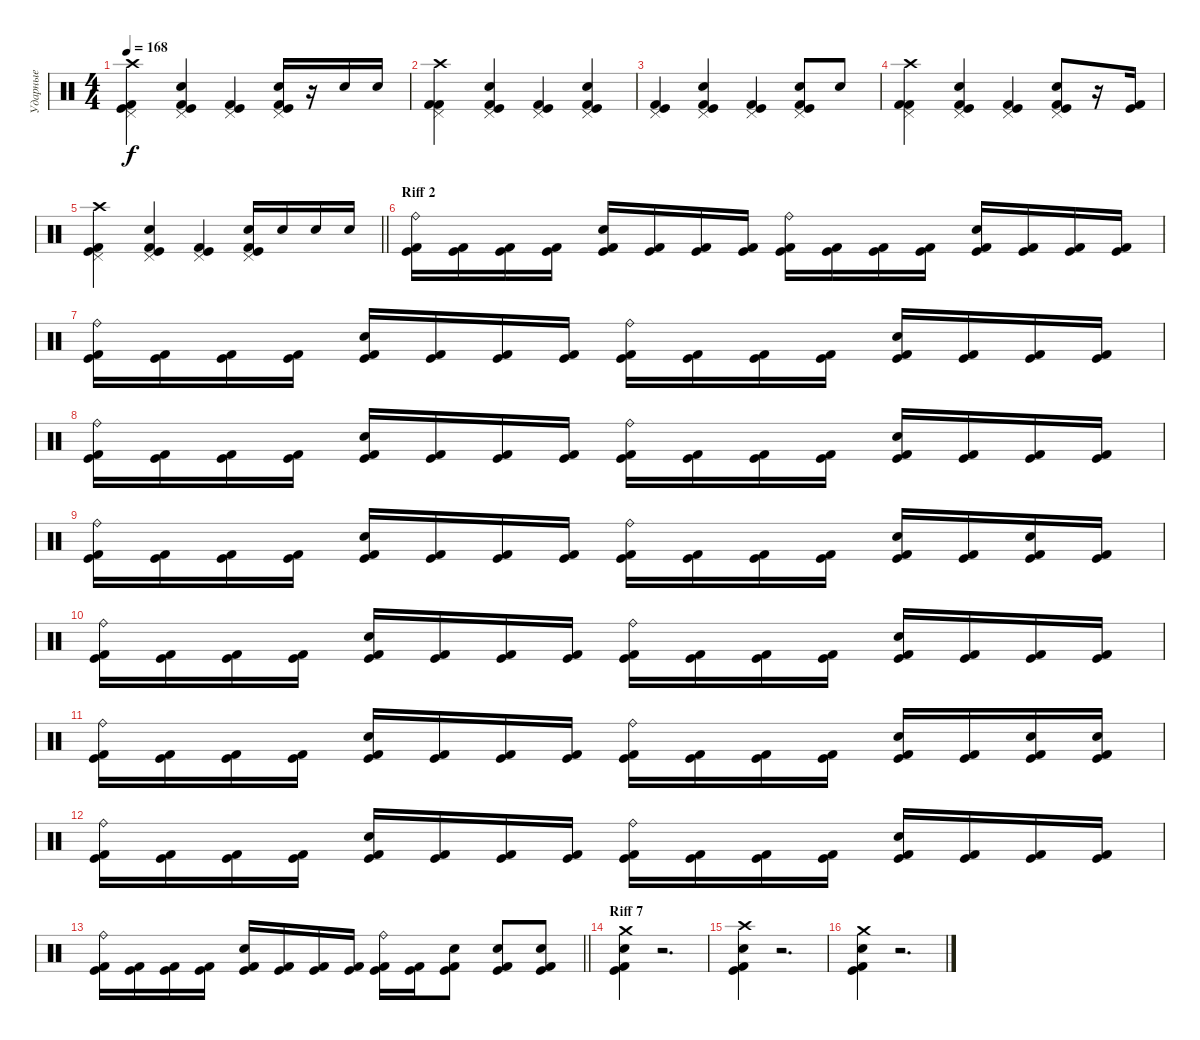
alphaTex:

\track ("Ударные" "Ударные") {instrument percussion}
\staff {score}
\articulation defaults
\ts (4 4)
\tempo 168
\clef neutral
\ks c
("Crash high (hit)" "Pedal Hi-Hat (hit)" "Kick (hit)" "Kick (hit) 2").4{dy f} ("Pedal Hi-Hat (hit)" "Electric Snare (hit)" "Kick (hit)" "Kick (hit) 2").4 ("Pedal Hi-Hat (hit)" "Kick (hit)" "Kick (hit) 2").4 ("Pedal Hi-Hat (hit)" "Electric Snare (hit)" "Kick (hit)" "Kick (hit) 2").16 r.16 "Electric Snare (hit)".16 "Electric Snare (hit)".16 |
("Crash high (hit)" "Pedal Hi-Hat (hit)" "Kick (hit) 2" "Kick (hit) 2").4 ("Pedal Hi-Hat (hit)" "Electric Snare (hit)" "Kick (hit)" "Kick (hit) 2").4 ("Pedal Hi-Hat (hit)" "Kick (hit)" "Kick (hit) 2").4 ("Pedal Hi-Hat (hit)" "Electric Snare (hit)" "Kick (hit)" "Kick (hit) 2").4 |
("Pedal Hi-Hat (hit)" "Kick (hit)" "Kick (hit) 2").4 ("Pedal Hi-Hat (hit)" "Electric Snare (hit)" "Kick (hit)" "Kick (hit) 2").4 ("Pedal Hi-Hat (hit)" "Kick (hit)" "Kick (hit) 2").4 ("Pedal Hi-Hat (hit)" "Electric Snare (hit)" "Kick (hit)" "Kick (hit) 2").8 "Electric Snare (hit)".8 |
("Crash high (hit)" "Pedal Hi-Hat (hit)" "Kick (hit) 2" "Kick (hit) 2").4 ("Pedal Hi-Hat (hit)" "Electric Snare (hit)" "Kick (hit)" "Kick (hit) 2").4 ("Pedal Hi-Hat (hit)" "Kick (hit)" "Kick (hit) 2").4 ("Pedal Hi-Hat (hit)" "Electric Snare (hit)" "Kick (hit)" "Kick (hit) 2").8 r.16 ("Kick (hit)" "Kick (hit) 2").16 |
\barLineRight lightlight
("Crash high (hit)" "Pedal Hi-Hat (hit)" "Kick (hit)" "Kick (hit) 2").4 ("Pedal Hi-Hat (hit)" "Electric Snare (hit)" "Kick (hit)" "Kick (hit) 2").4 ("Pedal Hi-Hat (hit)" "Kick (hit)" "Kick (hit) 2").4 ("Pedal Hi-Hat (hit)" "Electric Snare (hit)" "Kick (hit)" "Kick (hit) 2").16 "Electric Snare (hit)".16 "Electric Snare (hit)".16 "Electric Snare (hit)".16 |
\section ("" "Riff 2")
("Ride (bell)" "Kick (hit)" "Kick (hit) 2").16 ("Kick (hit)" "Kick (hit) 2").16 ("Kick (hit)" "Kick (hit) 2").16 ("Kick (hit)" "Kick (hit) 2").16 ("Electric Snare (hit)" "Kick (hit)" "Kick (hit) 2").16 ("Kick (hit)" "Kick (hit) 2").16 ("Kick (hit)" "Kick (hit) 2").16 ("Kick (hit)" "Kick (hit) 2").16 ("Ride (bell)" "Kick (hit)" "Kick (hit) 2").16 ("Kick (hit)" "Kick (hit) 2").16 ("Kick (hit)" "Kick (hit) 2").16 ("Kick (hit)" "Kick (hit) 2").16 ("Electric Snare (hit)" "Kick (hit)" "Kick (hit) 2").16 ("Kick (hit)" "Kick (hit) 2").16 ("Kick (hit)" "Kick (hit) 2").16 ("Kick (hit)" "Kick (hit) 2").16 |
("Ride (bell)" "Kick (hit)" "Kick (hit) 2").16 ("Kick (hit)" "Kick (hit) 2").16 ("Kick (hit)" "Kick (hit) 2").16 ("Kick (hit)" "Kick (hit) 2").16 ("Electric Snare (hit)" "Kick (hit)" "Kick (hit) 2").16 ("Kick (hit)" "Kick (hit) 2").16 ("Kick (hit)" "Kick (hit) 2").16 ("Kick (hit)" "Kick (hit) 2").16 ("Ride (bell)" "Kick (hit)" "Kick (hit) 2").16 ("Kick (hit)" "Kick (hit) 2").16 ("Kick (hit)" "Kick (hit) 2").16 ("Kick (hit)" "Kick (hit) 2").16 ("Electric Snare (hit)" "Kick (hit)" "Kick (hit) 2").16 ("Kick (hit)" "Kick (hit) 2").16 ("Kick (hit)" "Kick (hit) 2").16 ("Kick (hit)" "Kick (hit) 2").16 |
("Ride (bell)" "Kick (hit)" "Kick (hit) 2").16 ("Kick (hit)" "Kick (hit) 2").16 ("Kick (hit)" "Kick (hit) 2").16 ("Kick (hit)" "Kick (hit) 2").16 ("Electric Snare (hit)" "Kick (hit)" "Kick (hit) 2").16 ("Kick (hit)" "Kick (hit) 2").16 ("Kick (hit)" "Kick (hit) 2").16 ("Kick (hit)" "Kick (hit) 2").16 ("Ride (bell)" "Kick (hit)" "Kick (hit) 2").16 ("Kick (hit)" "Kick (hit) 2").16 ("Kick (hit)" "Kick (hit) 2").16 ("Kick (hit)" "Kick (hit) 2").16 ("Electric Snare (hit)" "Kick (hit)" "Kick (hit) 2").16 ("Kick (hit)" "Kick (hit) 2").16 ("Kick (hit)" "Kick (hit) 2").16 ("Kick (hit)" "Kick (hit) 2").16 |
("Ride (bell)" "Kick (hit)" "Kick (hit) 2").16 ("Kick (hit)" "Kick (hit) 2").16 ("Kick (hit)" "Kick (hit) 2").16 ("Kick (hit)" "Kick (hit) 2").16 ("Electric Snare (hit)" "Kick (hit)" "Kick (hit) 2").16 ("Kick (hit)" "Kick (hit) 2").16 ("Kick (hit)" "Kick (hit) 2").16 ("Kick (hit)" "Kick (hit) 2").16 ("Ride (bell)" "Kick (hit)" "Kick (hit) 2").16 ("Kick (hit)" "Kick (hit) 2").16 ("Kick (hit)" "Kick (hit) 2").16 ("Kick (hit)" "Kick (hit) 2").16 ("Electric Snare (hit)" "Kick (hit)" "Kick (hit) 2").16 ("Kick (hit)" "Kick (hit) 2").16 ("Electric Snare (hit)" "Kick (hit)" "Kick (hit) 2").16 ("Kick (hit)" "Kick (hit) 2").16 |
("Ride (bell)" "Kick (hit)" "Kick (hit) 2").16 ("Kick (hit)" "Kick (hit) 2").16 ("Kick (hit)" "Kick (hit) 2").16 ("Kick (hit)" "Kick (hit) 2").16 ("Electric Snare (hit)" "Kick (hit)" "Kick (hit) 2").16 ("Kick (hit)" "Kick (hit) 2").16 ("Kick (hit)" "Kick (hit) 2").16 ("Kick (hit)" "Kick (hit) 2").16 ("Ride (bell)" "Kick (hit)" "Kick (hit) 2").16 ("Kick (hit)" "Kick (hit) 2").16 ("Kick (hit)" "Kick (hit) 2").16 ("Kick (hit)" "Kick (hit) 2").16 ("Electric Snare (hit)" "Kick (hit)" "Kick (hit) 2").16 ("Kick (hit)" "Kick (hit) 2").16 ("Kick (hit)" "Kick (hit) 2").16 ("Kick (hit)" "Kick (hit) 2").16 |
("Ride (bell)" "Kick (hit)" "Kick (hit) 2").16 ("Kick (hit)" "Kick (hit) 2").16 ("Kick (hit)" "Kick (hit) 2").16 ("Kick (hit)" "Kick (hit) 2").16 ("Electric Snare (hit)" "Kick (hit)" "Kick (hit) 2").16 ("Kick (hit)" "Kick (hit) 2").16 ("Kick (hit)" "Kick (hit) 2").16 ("Kick (hit)" "Kick (hit) 2").16 ("Ride (bell)" "Kick (hit)" "Kick (hit) 2").16 ("Kick (hit)" "Kick (hit) 2").16 ("Kick (hit)" "Kick (hit) 2").16 ("Kick (hit)" "Kick (hit) 2").16 ("Electric Snare (hit)" "Kick (hit)" "Kick (hit) 2").16 ("Kick (hit)" "Kick (hit) 2").16 ("Electric Snare (hit)" "Kick (hit)" "Kick (hit) 2").16 ("Electric Snare (hit)" "Kick (hit)" "Kick (hit) 2").16 |
("Ride (bell)" "Kick (hit)" "Kick (hit) 2").16 ("Kick (hit)" "Kick (hit) 2").16 ("Kick (hit)" "Kick (hit) 2").16 ("Kick (hit)" "Kick (hit) 2").16 ("Electric Snare (hit)" "Kick (hit)" "Kick (hit) 2").16 ("Kick (hit)" "Kick (hit) 2").16 ("Kick (hit)" "Kick (hit) 2").16 ("Kick (hit)" "Kick (hit) 2").16 ("Ride (bell)" "Kick (hit)" "Kick (hit) 2").16 ("Kick (hit)" "Kick (hit) 2").16 ("Kick (hit)" "Kick (hit) 2").16 ("Kick (hit)" "Kick (hit) 2").16 ("Electric Snare (hit)" "Kick (hit)" "Kick (hit) 2").16 ("Kick (hit)" "Kick (hit) 2").16 ("Kick (hit)" "Kick (hit) 2").16 ("Kick (hit)" "Kick (hit) 2").16 |
\barLineRight lightlight
("Ride (bell)" "Kick (hit)" "Kick (hit) 2").16 ("Kick (hit)" "Kick (hit) 2").16 ("Kick (hit)" "Kick (hit) 2").16 ("Kick (hit)" "Kick (hit) 2").16 ("Electric Snare (hit)" "Kick (hit)" "Kick (hit) 2").16 ("Kick (hit)" "Kick (hit) 2").16 ("Kick (hit)" "Kick (hit) 2").16 ("Kick (hit)" "Kick (hit) 2").16 ("Ride (bell)" "Kick (hit)" "Kick (hit) 2").16 ("Kick (hit)" "Kick (hit) 2").16 ("Electric Snare (hit)" "Kick (hit)" "Kick (hit) 2").8 ("Electric Snare (hit)" "Kick (hit)" "Kick (hit) 2").8 ("Electric Snare (hit)" "Kick (hit)" "Kick (hit) 2").8 |
\section ("" "Riff 7")
("Crash medium (hit)" "Electric Snare (hit)" "Kick (hit)" "Kick (hit) 2").4 r.2{d} |
("Crash high (hit)" "Electric Snare (hit)" "Kick (hit)" "Kick (hit) 2").4 r.2{d} |
("Crash medium (hit)" "Electric Snare (hit)" "Kick (hit)" "Kick (hit) 2").4 r.2{d}
